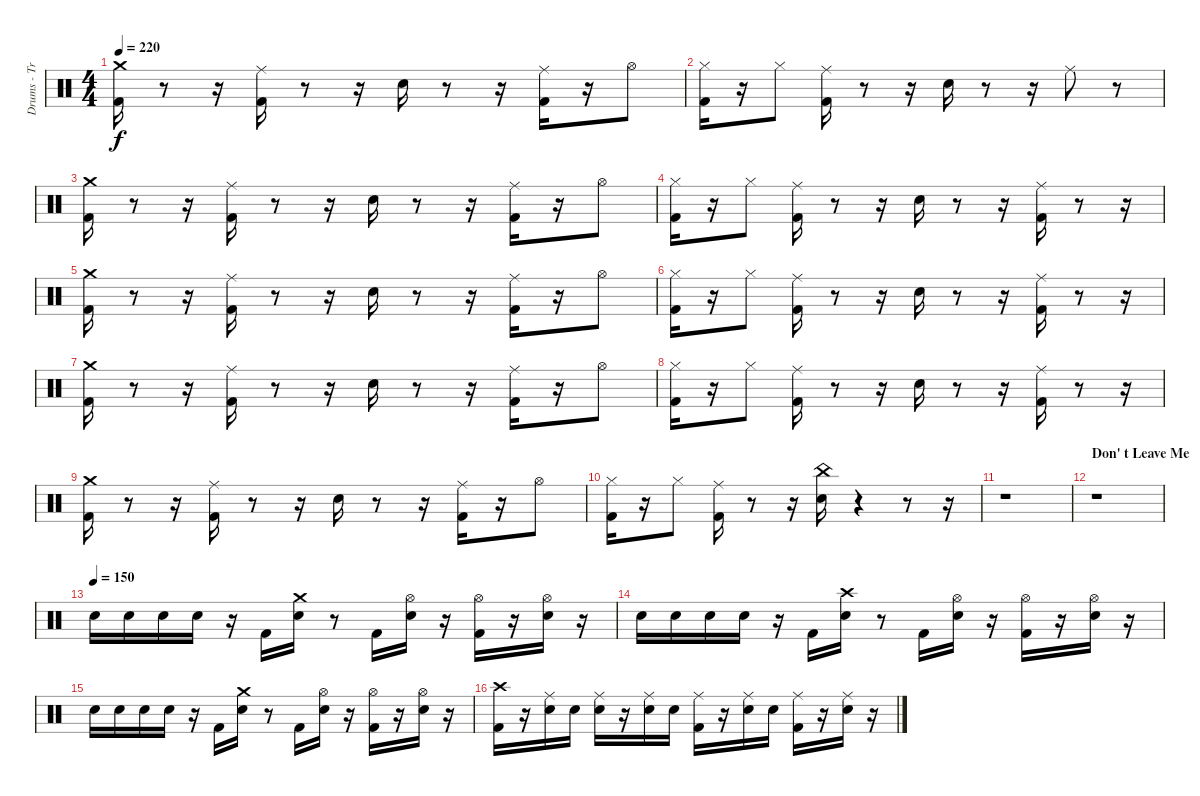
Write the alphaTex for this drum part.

\track ("Drums - Travis Barker" "Drums - Tr") {instrument percussion}
\staff {score}
\articulation defaults
\ts (4 4)
\tempo 220
\clef neutral
\ks c
("Crash medium (hit)" "Kick (hit) 2").16{dy f} r.8 r.16 ("Ride (middle)" "Kick (hit) 2").16 r.8 r.16 "Electric Snare (hit)".16 r.8 r.16 ("Ride (middle)" "Kick (hit) 2").16 r.16 "Hi-Hat (open)".8 |
("Kick (hit) 2" "Hi-Hat (closed)").16 r.16 "Hi-Hat (closed)".8 ("Ride (middle)" "Kick (hit) 2").16 r.8 r.16 "Electric Snare (hit)".16 r.8 r.16 "Ride (middle)".8 r.8 |
("Crash medium (hit)" "Kick (hit) 2").16 r.8 r.16 ("Ride (middle)" "Kick (hit) 2").16 r.8 r.16 "Electric Snare (hit)".16 r.8 r.16 ("Ride (middle)" "Kick (hit) 2").16 r.16 "Hi-Hat (open)".8 |
("Kick (hit) 2" "Hi-Hat (closed)").16 r.16 "Hi-Hat (closed)".8 ("Ride (middle)" "Kick (hit) 2").16 r.8 r.16 "Electric Snare (hit)".16 r.8 r.16 ("Ride (middle)" "Kick (hit) 2").16 r.8 r.16 |
("Crash medium (hit)" "Kick (hit) 2").16 r.8 r.16 ("Ride (middle)" "Kick (hit) 2").16 r.8 r.16 "Electric Snare (hit)".16 r.8 r.16 ("Ride (middle)" "Kick (hit) 2").16 r.16 "Hi-Hat (open)".8 |
("Kick (hit) 2" "Hi-Hat (closed)").16 r.16 "Hi-Hat (closed)".8 ("Ride (middle)" "Kick (hit) 2").16 r.8 r.16 "Electric Snare (hit)".16 r.8 r.16 ("Ride (middle)" "Kick (hit) 2").16 r.8 r.16 |
("Crash medium (hit)" "Kick (hit) 2").16 r.8 r.16 ("Ride (middle)" "Kick (hit) 2").16 r.8 r.16 "Electric Snare (hit)".16 r.8 r.16 ("Ride (middle)" "Kick (hit) 2").16 r.16 "Hi-Hat (open)".8 |
("Kick (hit) 2" "Hi-Hat (closed)").16 r.16 "Hi-Hat (closed)".8 ("Ride (middle)" "Kick (hit) 2").16 r.8 r.16 "Electric Snare (hit)".16 r.8 r.16 ("Ride (middle)" "Kick (hit) 2").16 r.8 r.16 |
("Crash medium (hit)" "Kick (hit) 2").16 r.8 r.16 ("Ride (middle)" "Kick (hit) 2").16 r.8 r.16 "Electric Snare (hit)".16 r.8 r.16 ("Ride (middle)" "Kick (hit) 2").16 r.16 "Hi-Hat (open)".8 |
("Kick (hit) 2" "Hi-Hat (closed)").16 r.16 "Hi-Hat (closed)".8 ("Ride (middle)" "Kick (hit) 2").16 r.8 r.16 ("China (hit)" "Electric Snare (hit)").16 r.4 r.8 r.16 |
r.1 |
\section ("" "Don' t Leave Me")
r.1 |
\tempo (150)
"Electric Snare (hit)".16 "Electric Snare (hit)".16 "Electric Snare (hit)".16 "Electric Snare (hit)".16 r.16 "Kick (hit) 2".16 ("Crash medium (hit)" "Electric Snare (hit)").16 r.8 "Kick (hit) 2".16 ("Hi-Hat (open)" "Electric Snare (hit)").16 r.16 ("Hi-Hat (open)" "Kick (hit) 2").16 r.16 ("Hi-Hat (open)" "Electric Snare (hit)").16 r.16 |
"Electric Snare (hit)".16 "Electric Snare (hit)".16 "Electric Snare (hit)".16 "Electric Snare (hit)".16 r.16 "Kick (hit) 2".16 ("Crash high (hit)" "Electric Snare (hit)").16 r.8 "Kick (hit) 2".16 ("Hi-Hat (open)" "Electric Snare (hit)").16 r.16 ("Hi-Hat (open)" "Kick (hit) 2").16 r.16 ("Hi-Hat (open)" "Electric Snare (hit)").16 r.16 |
"Electric Snare (hit)".16 "Electric Snare (hit)".16 "Electric Snare (hit)".16 "Electric Snare (hit)".16 r.16 "Kick (hit) 2".16 ("Crash medium (hit)" "Electric Snare (hit)").16 r.8 "Kick (hit) 2".16 ("Hi-Hat (open)" "Electric Snare (hit)").16 r.16 ("Hi-Hat (open)" "Kick (hit) 2").16 r.16 ("Hi-Hat (open)" "Electric Snare (hit)").16 r.16 |
("Crash high (hit)" "Kick (hit) 2").16 r.16 ("Ride (middle)" "Electric Snare (hit)").16 "Electric Snare (hit)".16 ("Hand Clap (hit)" "Ride (middle)").16 r.16 ("Ride (middle)" "Electric Snare (hit)").16 "Electric Snare (hit)".16 ("Ride (middle)" "Kick (hit) 2").16 r.16 ("Ride (middle)" "Electric Snare (hit)").16 "Electric Snare (hit)".16 ("Ride (middle)" "Kick (hit) 2").16 r.16 ("Ride (middle)" "Electric Snare (hit)").16 r.16
